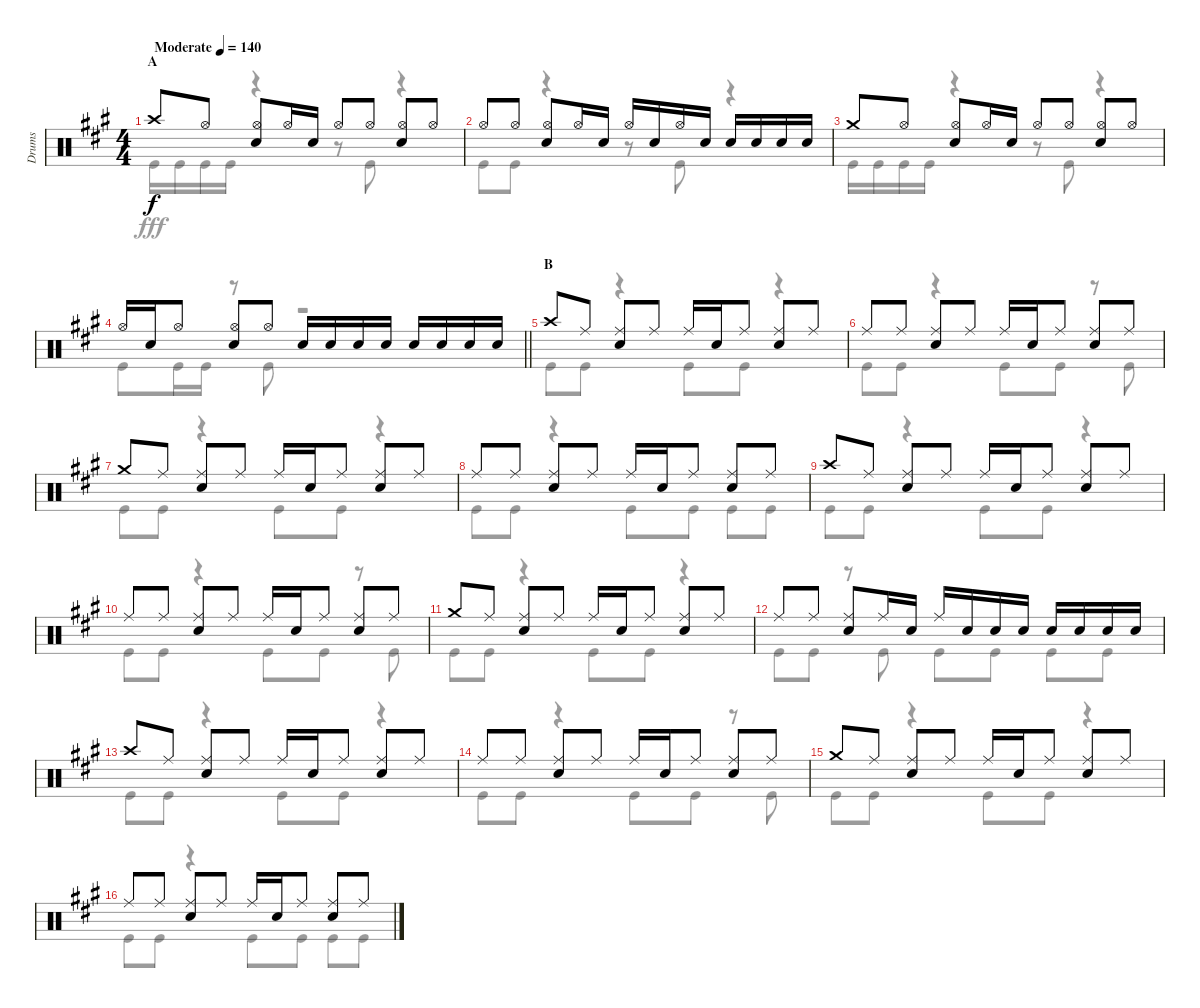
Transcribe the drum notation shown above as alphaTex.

\track ("Drums" "Drums") {instrument percussion}
\staff {score}
\articulation defaults
\voice
\ts (4 4)
\section ("" "A")
\tempo (140 "Moderate")
\clef neutral
\ks a "Crash high (hit)".8{dy f} "Hi-Hat (open)".8
("Hi-Hat (open)" "Snare (hit) 2").8 "Hi-Hat (open)".16 "Snare (hit) 2".16 "Hi-Hat (open)".8 "Hi-Hat (open)".8 ("Hi-Hat (open)" "Snare (hit) 2").8 "Hi-Hat (open)".8 |
"Hi-Hat (open)".8 "Hi-Hat (open)".8 ("Hi-Hat (open)" "Snare (hit) 2").8 "Hi-Hat (open)".16 "Snare (hit) 2".16 "Hi-Hat (open)".16 "Snare (hit) 2".16 "Hi-Hat (open)".16 "Snare (hit) 2".16 "Snare (hit) 2".16 "Snare (hit) 2".16 "Snare (hit) 2".16 "Snare (hit) 2".16 |
"Crash medium (hit)".8 "Hi-Hat (open)".8 ("Hi-Hat (open)" "Snare (hit) 2").8 "Hi-Hat (open)".16 "Snare (hit) 2".16 "Hi-Hat (open)".8 "Hi-Hat (open)".8 ("Hi-Hat (open)" "Snare (hit) 2").8 "Hi-Hat (open)".8 |
\barLineRight lightlight "Hi-Hat (open)".16 "Snare (hit) 2".16 "Hi-Hat (open)".8
("Hi-Hat (open)" "Snare (hit) 2").8 "Hi-Hat (open)".8 "Snare (hit) 2".16 "Snare (hit) 2".16 "Snare (hit) 2".16 "Snare (hit) 2".16 "Snare (hit) 2".16 "Snare (hit) 2".16 "Snare (hit) 2".16 "Snare (hit) 2".16 |
\section ("" "B")
"Crash high (hit)".8 "Ride (middle)".8 ("Ride (middle)" "Snare (hit) 2").8 "Ride (middle)".8 "Ride (middle)".16 "Snare (hit) 2".16 "Ride (middle)".8 ("Ride (middle)" "Snare (hit) 2").8 "Ride (middle)".8 |
"Ride (middle)".8 "Ride (middle)".8 ("Ride (middle)" "Snare (hit) 2").8 "Ride (middle)".8 "Ride (middle)".16 "Snare (hit) 2".16 "Ride (middle)".8 ("Ride (middle)" "Snare (hit) 2").8 "Ride (middle)".8 |
"Crash medium (hit)".8 "Ride (middle)".8 ("Ride (middle)" "Snare (hit) 2").8 "Ride (middle)".8 "Ride (middle)".16 "Snare (hit) 2".16 "Ride (middle)".8 ("Ride (middle)" "Snare (hit) 2").8 "Ride (middle)".8 |
"Ride (middle)".8 "Ride (middle)".8 ("Ride (middle)" "Snare (hit) 2").8 "Ride (middle)".8 "Ride (middle)".16 "Snare (hit) 2".16 "Ride (middle)".8 ("Ride (middle)" "Snare (hit) 2").8 "Ride (middle)".8 |
"Crash high (hit)".8 "Ride (middle)".8 ("Ride (middle)" "Snare (hit) 2").8 "Ride (middle)".8 "Ride (middle)".16 "Snare (hit) 2".16 "Ride (middle)".8 ("Ride (middle)" "Snare (hit) 2").8 "Ride (middle)".8 |
"Ride (middle)".8 "Ride (middle)".8 ("Ride (middle)" "Snare (hit) 2").8 "Ride (middle)".8 "Ride (middle)".16 "Snare (hit) 2".16 "Ride (middle)".8 ("Ride (middle)" "Snare (hit) 2").8 "Ride (middle)".8 |
"Crash medium (hit)".8 "Ride (middle)".8 ("Ride (middle)" "Snare (hit) 2").8 "Ride (middle)".8 "Ride (middle)".16 "Snare (hit) 2".16 "Ride (middle)".8 ("Ride (middle)" "Snare (hit) 2").8 "Ride (middle)".8 |
"Ride (middle)".8 "Ride (middle)".8 ("Ride (middle)" "Snare (hit) 2").8 "Ride (middle)".16 "Snare (hit) 2".16 "Ride (middle)".16 "Snare (hit) 2".16 "Snare (hit) 2".16 "Snare (hit) 2".16 "Snare (hit) 2".16 "Snare (hit) 2".16 "Snare (hit) 2".16 "Snare (hit) 2".16 |
"Crash high (hit)".8 "Ride (middle)".8 ("Ride (middle)" "Snare (hit) 2").8 "Ride (middle)".8 "Ride (middle)".16 "Snare (hit) 2".16 "Ride (middle)".8 ("Ride (middle)" "Snare (hit) 2").8 "Ride (middle)".8 |
"Ride (middle)".8 "Ride (middle)".8 ("Ride (middle)" "Snare (hit) 2").8 "Ride (middle)".8 "Ride (middle)".16 "Snare (hit) 2".16 "Ride (middle)".8 ("Ride (middle)" "Snare (hit) 2").8 "Ride (middle)".8 |
"Crash medium (hit)".8 "Ride (middle)".8 ("Ride (middle)" "Snare (hit) 2").8 "Ride (middle)".8 "Ride (middle)".16 "Snare (hit) 2".16 "Ride (middle)".8 ("Ride (middle)" "Snare (hit) 2").8 "Ride (middle)".8 |
"Ride (middle)".8 "Ride (middle)".8 ("Ride (middle)" "Snare (hit) 2").8 "Ride (middle)".8 "Ride (middle)".16 "Snare (hit) 2".16 "Ride (middle)".8 ("Ride (middle)" "Snare (hit) 2").8 "Ride (middle)".8
\voice
\clef neutral
\ottava regular
\simile none
\ks a "Kick (hit)".16{dy fff} "Kick (hit)".16 "Kick (hit)".16 "Kick (hit)".16
r.4 r.8 "Kick (hit)".8 r.4 |
"Kick (hit)".8 "Kick (hit)".8 r.4 r.8 "Kick (hit)".8 r.4 |
"Kick (hit)".16 "Kick (hit)".16 "Kick (hit)".16 "Kick (hit)".16 r.4 r.8 "Kick (hit)".8 r.4 |
\barLineRight lightlight "Kick (hit)".8 "Kick (hit)".16 "Kick (hit)".16
r.8 "Kick (hit)".8 r.2 |
"Kick (hit)".8 "Kick (hit)".8 r.4 "Kick (hit)".8 "Kick (hit)".8 r.4 |
"Kick (hit)".8 "Kick (hit)".8 r.4 "Kick (hit)".8 "Kick (hit)".8 r.8 "Kick (hit)".8 |
"Kick (hit)".8 "Kick (hit)".8 r.4 "Kick (hit)".8 "Kick (hit)".8 r.4 |
"Kick (hit)".8 "Kick (hit)".8 r.4 "Kick (hit)".8 "Kick (hit)".8 "Kick (hit)".8 "Kick (hit)".8 |
"Kick (hit)".8 "Kick (hit)".8 r.4 "Kick (hit)".8 "Kick (hit)".8 r.4 |
"Kick (hit)".8 "Kick (hit)".8 r.4 "Kick (hit)".8 "Kick (hit)".8 r.8 "Kick (hit)".8 |
"Kick (hit)".8 "Kick (hit)".8 r.4 "Kick (hit)".8 "Kick (hit)".8 r.4 |
"Kick (hit)".8 "Kick (hit)".8 r.8 "Kick (hit)".8 "Kick (hit)".8 "Kick (hit)".8 "Kick (hit)".8 "Kick (hit)".8 |
"Kick (hit)".8 "Kick (hit)".8 r.4 "Kick (hit)".8 "Kick (hit)".8 r.4 |
"Kick (hit)".8 "Kick (hit)".8 r.4 "Kick (hit)".8 "Kick (hit)".8 r.8 "Kick (hit)".8 |
"Kick (hit)".8 "Kick (hit)".8 r.4 "Kick (hit)".8 "Kick (hit)".8 r.4 |
"Kick (hit)".8 "Kick (hit)".8 r.4 "Kick (hit)".8 "Kick (hit)".8 "Kick (hit)".8 "Kick (hit)".8
